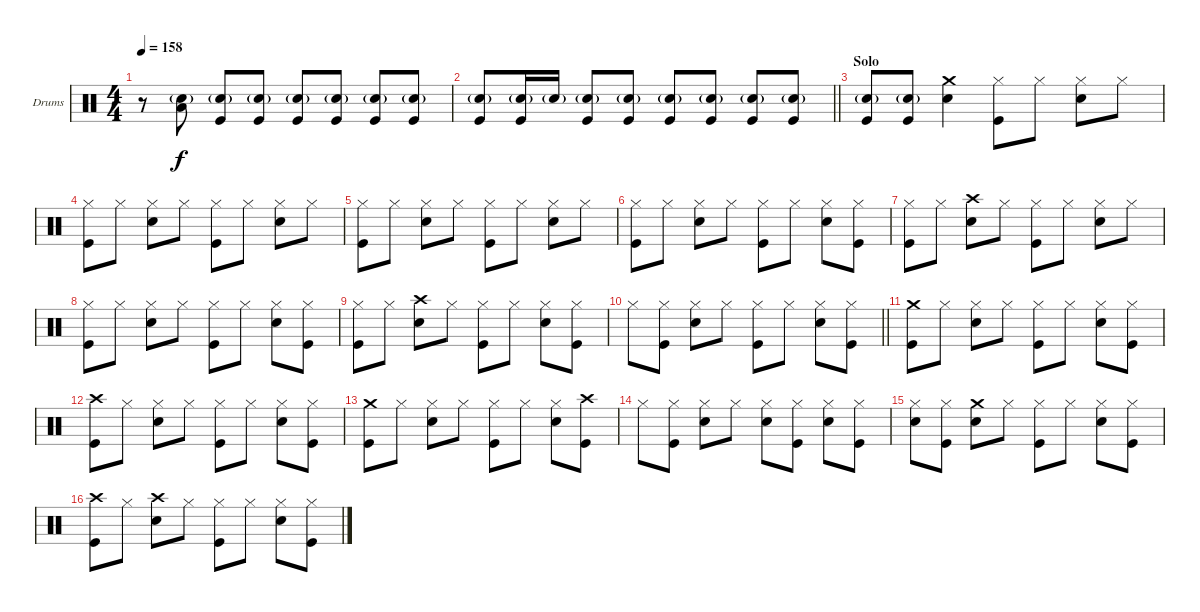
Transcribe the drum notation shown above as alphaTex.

\bracketExtendMode groupsimilarinstruments
\firstSystemTrackNameOrientation horizontal
\otherSystemsTrackNameOrientation horizontal
\track ("Drumkit" "Drums") {instrument percussion}
\staff {score}
\articulation defaults
\ts (4 4)
\tempo 158
\clef neutral
\ks c
r.8{dy f} ("Snare (hit) 2"{g} "Low Tom (hit)").8 ("Snare (hit) 2"{g} "Kick (hit)").8 ("Snare (hit) 2"{g} "Kick (hit)").8 ("Snare (hit) 2"{g} "Kick (hit)").8 ("Snare (hit) 2"{g} "Kick (hit)").8 ("Snare (hit) 2"{g} "Kick (hit)").8 ("Snare (hit) 2"{g} "Kick (hit)").8 |
\barLineRight lightlight
("Snare (hit) 2"{g} "Kick (hit)").8 ("Snare (hit) 2"{g} "Kick (hit)").16 "Snare (hit) 2"{g}.16 ("Snare (hit) 2"{g} "Kick (hit)").8 ("Snare (hit) 2"{g} "Kick (hit)").8 ("Snare (hit) 2"{g} "Kick (hit)").8 ("Snare (hit) 2"{g} "Kick (hit)").8 ("Snare (hit) 2"{g} "Kick (hit)").8 ("Snare (hit) 2"{g} "Kick (hit)").8 |
\section ("" "Solo")
("Snare (hit) 2"{g} "Kick (hit)").8 ("Snare (hit) 2"{g} "Kick (hit)").8 ("Crash medium (hit)" "Snare (hit) 2").4 ("Hi-Hat (closed)" "Kick (hit)").8 "Hi-Hat (closed)".8 ("Hi-Hat (closed)" "Snare (hit) 2").8 "Hi-Hat (closed)".8 |
("Hi-Hat (closed)" "Kick (hit)").8 "Hi-Hat (closed)".8 ("Hi-Hat (closed)" "Snare (hit) 2").8 "Hi-Hat (closed)".8 ("Hi-Hat (closed)" "Kick (hit)").8 "Hi-Hat (closed)".8 ("Hi-Hat (closed)" "Snare (hit) 2").8 "Hi-Hat (closed)".8 |
("Hi-Hat (closed)" "Kick (hit)").8 "Hi-Hat (closed)".8 ("Hi-Hat (closed)" "Snare (hit) 2").8 "Hi-Hat (closed)".8 ("Hi-Hat (closed)" "Kick (hit)").8 "Hi-Hat (closed)".8 ("Hi-Hat (closed)" "Snare (hit) 2").8 "Hi-Hat (closed)".8 |
("Hi-Hat (closed)" "Kick (hit)").8 "Hi-Hat (closed)".8 ("Hi-Hat (closed)" "Snare (hit) 2").8 "Hi-Hat (closed)".8 ("Hi-Hat (closed)" "Kick (hit)").8 "Hi-Hat (closed)".8 ("Hi-Hat (closed)" "Snare (hit) 2").8 ("Hi-Hat (closed)" "Kick (hit)").8 |
("Hi-Hat (closed)" "Kick (hit)").8 "Hi-Hat (closed)".8 ("Crash high (hit)" "Snare (hit) 2").8 "Hi-Hat (closed)".8 ("Hi-Hat (closed)" "Kick (hit)").8 "Hi-Hat (closed)".8 ("Hi-Hat (closed)" "Snare (hit) 2").8 "Hi-Hat (closed)".8 |
("Hi-Hat (closed)" "Kick (hit)").8 "Hi-Hat (closed)".8 ("Hi-Hat (closed)" "Snare (hit) 2").8 "Hi-Hat (closed)".8 ("Hi-Hat (closed)" "Kick (hit)").8 "Hi-Hat (closed)".8 ("Hi-Hat (closed)" "Snare (hit) 2").8 ("Hi-Hat (closed)" "Kick (hit)").8 |
("Hi-Hat (closed)" "Kick (hit)").8 "Hi-Hat (closed)".8 ("Crash high (hit)" "Snare (hit) 2").8 "Hi-Hat (closed)".8 ("Hi-Hat (closed)" "Kick (hit)").8 "Hi-Hat (closed)".8 ("Hi-Hat (closed)" "Snare (hit) 2").8 ("Hi-Hat (closed)" "Kick (hit)").8 |
\barLineRight lightlight "Hi-Hat (closed)".8
("Hi-Hat (closed)" "Kick (hit)").8 ("Hi-Hat (closed)" "Snare (hit) 2").8 "Hi-Hat (closed)".8 ("Hi-Hat (closed)" "Kick (hit)").8 "Hi-Hat (closed)".8 ("Hi-Hat (closed)" "Snare (hit) 2").8 ("Hi-Hat (closed)" "Kick (hit)").8 |
\section ("" "")
("Crash medium (hit)" "Kick (hit)").8 "Hi-Hat (closed)".8 ("Hi-Hat (closed)" "Snare (hit) 2").8 "Hi-Hat (closed)".8 ("Hi-Hat (closed)" "Kick (hit)").8 "Hi-Hat (closed)".8 ("Hi-Hat (closed)" "Snare (hit) 2").8 ("Hi-Hat (closed)" "Kick (hit)").8 |
("Crash high (hit)" "Kick (hit)").8 "Hi-Hat (closed)".8 ("Hi-Hat (closed)" "Snare (hit) 2").8 "Hi-Hat (closed)".8 ("Hi-Hat (closed)" "Kick (hit)").8 "Hi-Hat (closed)".8 ("Hi-Hat (closed)" "Snare (hit) 2").8 ("Hi-Hat (closed)" "Kick (hit)").8 |
("Crash medium (hit)" "Kick (hit)").8 "Hi-Hat (closed)".8 ("Hi-Hat (closed)" "Snare (hit) 2").8 "Hi-Hat (closed)".8 ("Hi-Hat (closed)" "Kick (hit)").8 "Hi-Hat (closed)".8 ("Hi-Hat (closed)" "Snare (hit) 2").8 ("Crash high (hit)" "Kick (hit)").8 |
"Hi-Hat (closed)".8 ("Hi-Hat (closed)" "Kick (hit)").8 ("Hi-Hat (closed)" "Snare (hit) 2").8 "Hi-Hat (closed)".8 ("Hi-Hat (closed)" "Snare (hit) 2").8 ("Hi-Hat (closed)" "Kick (hit)").8 ("Hi-Hat (closed)" "Snare (hit) 2").8 ("Hi-Hat (closed)" "Kick (hit)").8 |
("Hi-Hat (closed)" "Snare (hit) 2").8 ("Hi-Hat (closed)" "Kick (hit)").8 ("Crash medium (hit)" "Snare (hit) 2").8 "Hi-Hat (closed)".8 ("Hi-Hat (closed)" "Kick (hit)").8 "Hi-Hat (closed)".8 ("Hi-Hat (closed)" "Snare (hit) 2").8 ("Hi-Hat (closed)" "Kick (hit)").8 |
("Crash high (hit)" "Kick (hit)").8 "Hi-Hat (closed)".8 ("Crash high (hit)" "Snare (hit) 2").8 "Hi-Hat (closed)".8 ("Hi-Hat (closed)" "Kick (hit)").8 "Hi-Hat (closed)".8 ("Hi-Hat (closed)" "Snare (hit) 2").8 ("Hi-Hat (closed)" "Kick (hit)").8
